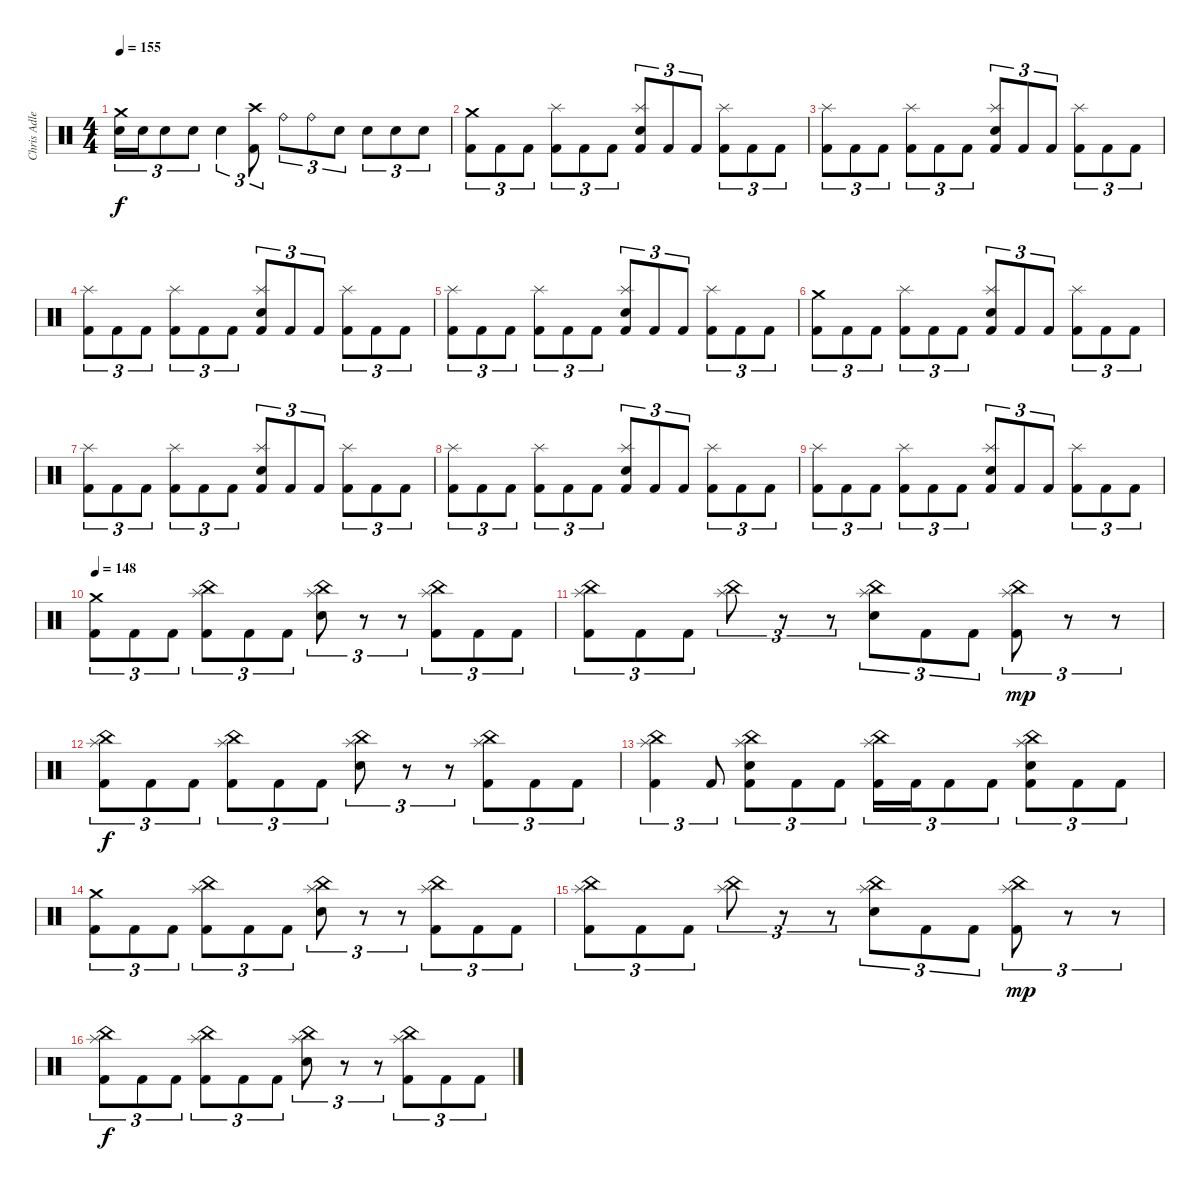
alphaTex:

\track ("Chris Adler" "Chris Adle") {instrument percussion}
\staff {score}
\articulation defaults
\ts (4 4)
\tempo 155
\clef neutral
\ks c
("Electric Snare (hit)" "Crash medium (hit)").16{tu (3 2) dy f} "Electric Snare (hit)".16{tu (3 2)} "Electric Snare (hit)".8{tu (3 2)} "Electric Snare (hit)".8{tu (3 2)} "Electric Snare (hit)".4{tu (3 2)} ("Kick (hit) 2" "Crash high (hit)").8{tu (3 2)} "Ride (bell)".8{tu (3 2)} "Ride (bell)".8{tu (3 2)} "Electric Snare (hit)".8{tu (3 2)} "Electric Snare (hit)".8{tu (3 2)} "Electric Snare (hit)".8{tu (3 2)} "Electric Snare (hit)".8{tu (3 2)} |
("Crash medium (hit)" "Kick (hit) 2").8{tu (3 2)} "Kick (hit) 2".8{tu (3 2)} "Kick (hit) 2".8{tu (3 2)} ("Splash (hit)" "Kick (hit) 2").8{tu (3 2)} "Kick (hit) 2".8{tu (3 2)} "Kick (hit) 2".8{tu (3 2)} ("Splash (hit)" "Snare (hit) 2" "Kick (hit) 2").8{tu (3 2)} "Kick (hit) 2".8{tu (3 2)} "Kick (hit) 2".8{tu (3 2)} ("Splash (hit)" "Kick (hit) 2").8{tu (3 2)} "Kick (hit) 2".8{tu (3 2)} "Kick (hit) 2".8{tu (3 2)} |
("Splash (hit)" "Kick (hit) 2").8{tu (3 2)} "Kick (hit) 2".8{tu (3 2)} "Kick (hit) 2".8{tu (3 2)} ("Splash (hit)" "Kick (hit) 2").8{tu (3 2)} "Kick (hit) 2".8{tu (3 2)} "Kick (hit) 2".8{tu (3 2)} ("Splash (hit)" "Snare (hit) 2" "Kick (hit) 2").8{tu (3 2)} "Kick (hit) 2".8{tu (3 2)} "Kick (hit) 2".8{tu (3 2)} ("Splash (hit)" "Kick (hit) 2").8{tu (3 2)} "Kick (hit) 2".8{tu (3 2)} "Kick (hit) 2".8{tu (3 2)} |
("Splash (hit)" "Kick (hit) 2").8{tu (3 2)} "Kick (hit) 2".8{tu (3 2)} "Kick (hit) 2".8{tu (3 2)} ("Splash (hit)" "Kick (hit) 2").8{tu (3 2)} "Kick (hit) 2".8{tu (3 2)} "Kick (hit) 2".8{tu (3 2)} ("Splash (hit)" "Snare (hit) 2" "Kick (hit) 2").8{tu (3 2)} "Kick (hit) 2".8{tu (3 2)} "Kick (hit) 2".8{tu (3 2)} ("Splash (hit)" "Kick (hit) 2").8{tu (3 2)} "Kick (hit) 2".8{tu (3 2)} "Kick (hit) 2".8{tu (3 2)} |
("Splash (hit)" "Kick (hit) 2").8{tu (3 2)} "Kick (hit) 2".8{tu (3 2)} "Kick (hit) 2".8{tu (3 2)} ("Splash (hit)" "Kick (hit) 2").8{tu (3 2)} "Kick (hit) 2".8{tu (3 2)} "Kick (hit) 2".8{tu (3 2)} ("Splash (hit)" "Snare (hit) 2" "Kick (hit) 2").8{tu (3 2)} "Kick (hit) 2".8{tu (3 2)} "Kick (hit) 2".8{tu (3 2)} ("Splash (hit)" "Kick (hit) 2").8{tu (3 2)} "Kick (hit) 2".8{tu (3 2)} "Kick (hit) 2".8{tu (3 2)} |
("Crash medium (hit)" "Kick (hit) 2").8{tu (3 2)} "Kick (hit) 2".8{tu (3 2)} "Kick (hit) 2".8{tu (3 2)} ("Splash (hit)" "Kick (hit) 2").8{tu (3 2)} "Kick (hit) 2".8{tu (3 2)} "Kick (hit) 2".8{tu (3 2)} ("Splash (hit)" "Snare (hit) 2" "Kick (hit) 2").8{tu (3 2)} "Kick (hit) 2".8{tu (3 2)} "Kick (hit) 2".8{tu (3 2)} ("Splash (hit)" "Kick (hit) 2").8{tu (3 2)} "Kick (hit) 2".8{tu (3 2)} "Kick (hit) 2".8{tu (3 2)} |
("Splash (hit)" "Kick (hit) 2").8{tu (3 2)} "Kick (hit) 2".8{tu (3 2)} "Kick (hit) 2".8{tu (3 2)} ("Splash (hit)" "Kick (hit) 2").8{tu (3 2)} "Kick (hit) 2".8{tu (3 2)} "Kick (hit) 2".8{tu (3 2)} ("Splash (hit)" "Snare (hit) 2" "Kick (hit) 2").8{tu (3 2)} "Kick (hit) 2".8{tu (3 2)} "Kick (hit) 2".8{tu (3 2)} ("Splash (hit)" "Kick (hit) 2").8{tu (3 2)} "Kick (hit) 2".8{tu (3 2)} "Kick (hit) 2".8{tu (3 2)} |
("Splash (hit)" "Kick (hit) 2").8{tu (3 2)} "Kick (hit) 2".8{tu (3 2)} "Kick (hit) 2".8{tu (3 2)} ("Splash (hit)" "Kick (hit) 2").8{tu (3 2)} "Kick (hit) 2".8{tu (3 2)} "Kick (hit) 2".8{tu (3 2)} ("Splash (hit)" "Snare (hit) 2" "Kick (hit) 2").8{tu (3 2)} "Kick (hit) 2".8{tu (3 2)} "Kick (hit) 2".8{tu (3 2)} ("Splash (hit)" "Kick (hit) 2").8{tu (3 2)} "Kick (hit) 2".8{tu (3 2)} "Kick (hit) 2".8{tu (3 2)} |
("Splash (hit)" "Kick (hit) 2").8{tu (3 2)} "Kick (hit) 2".8{tu (3 2)} "Kick (hit) 2".8{tu (3 2)} ("Splash (hit)" "Kick (hit) 2").8{tu (3 2)} "Kick (hit) 2".8{tu (3 2)} "Kick (hit) 2".8{tu (3 2)} ("Splash (hit)" "Snare (hit) 2" "Kick (hit) 2").8{tu (3 2)} "Kick (hit) 2".8{tu (3 2)} "Kick (hit) 2".8{tu (3 2)} ("Splash (hit)" "Kick (hit) 2").8{tu (3 2)} "Kick (hit) 2".8{tu (3 2)} "Kick (hit) 2".8{tu (3 2)} |
\tempo 148
("Crash medium (hit)" "Kick (hit) 2").8{tu (3 2)} "Kick (hit) 2".8{tu (3 2)} "Kick (hit) 2".8{tu (3 2)} ("China (hit)" "Splash (hit)" "Kick (hit) 2").8{tu (3 2)} "Kick (hit) 2".8{tu (3 2)} "Kick (hit) 2".8{tu (3 2)} ("China (hit)" "Splash (hit)" "Snare (hit) 2").8{tu (3 2)} r.8{tu (3 2)} r.8{tu (3 2)} ("China (hit)" "Splash (hit)" "Kick (hit) 2").8{tu (3 2)} "Kick (hit) 2".8{tu (3 2)} "Kick (hit) 2".8{tu (3 2)} |
("China (hit)" "Splash (hit)" "Kick (hit) 2").8{tu (3 2)} "Kick (hit) 2".8{tu (3 2)} "Kick (hit) 2".8{tu (3 2)} ("China (hit)" "Splash (hit)").8{tu (3 2)} r.8{tu (3 2)} r.8{tu (3 2)} ("China (hit)" "Splash (hit)" "Snare (hit) 2").8{tu (3 2)} "Kick (hit) 2".8{tu (3 2)} "Kick (hit) 2".8{tu (3 2)} ("China (hit)" "Splash (hit)" "Kick (hit) 2").8{tu (3 2) dy mp} r.8{tu (3 2)} r.8{tu (3 2)} |
("China (hit)" "Splash (hit)" "Kick (hit) 2").8{tu (3 2) dy f} "Kick (hit) 2".8{tu (3 2)} "Kick (hit) 2".8{tu (3 2)} ("China (hit)" "Splash (hit)" "Kick (hit) 2").8{tu (3 2)} "Kick (hit) 2".8{tu (3 2)} "Kick (hit) 2".8{tu (3 2)} ("China (hit)" "Splash (hit)" "Snare (hit) 2").8{tu (3 2)} r.8{tu (3 2)} r.8{tu (3 2)} ("China (hit)" "Splash (hit)" "Kick (hit) 2").8{tu (3 2)} "Kick (hit) 2".8{tu (3 2)} "Kick (hit) 2".8{tu (3 2)} |
("China (hit)" "Splash (hit)" "Kick (hit) 2").4{tu (3 2)} "Kick (hit) 2".8{tu (3 2)} ("China (hit)" "Splash (hit)" "Snare (hit) 2" "Kick (hit) 2").8{tu (3 2)} "Kick (hit) 2".8{tu (3 2)} "Kick (hit) 2".8{tu (3 2)} ("China (hit)" "Splash (hit)" "Kick (hit) 2").16{tu (3 2)} "Kick (hit) 2".16{tu (3 2)} "Kick (hit) 2".8{tu (3 2)} "Kick (hit) 2".8{tu (3 2)} ("China (hit)" "Splash (hit)" "Snare (hit) 2" "Kick (hit) 2").8{tu (3 2)} "Kick (hit) 2".8{tu (3 2)} "Kick (hit) 2".8{tu (3 2)} |
("Crash medium (hit)" "Kick (hit) 2").8{tu (3 2)} "Kick (hit) 2".8{tu (3 2)} "Kick (hit) 2".8{tu (3 2)} ("China (hit)" "Splash (hit)" "Kick (hit) 2").8{tu (3 2)} "Kick (hit) 2".8{tu (3 2)} "Kick (hit) 2".8{tu (3 2)} ("China (hit)" "Splash (hit)" "Snare (hit) 2").8{tu (3 2)} r.8{tu (3 2)} r.8{tu (3 2)} ("China (hit)" "Splash (hit)" "Kick (hit) 2").8{tu (3 2)} "Kick (hit) 2".8{tu (3 2)} "Kick (hit) 2".8{tu (3 2)} |
("China (hit)" "Splash (hit)" "Kick (hit) 2").8{tu (3 2)} "Kick (hit) 2".8{tu (3 2)} "Kick (hit) 2".8{tu (3 2)} ("China (hit)" "Splash (hit)").8{tu (3 2)} r.8{tu (3 2)} r.8{tu (3 2)} ("China (hit)" "Splash (hit)" "Snare (hit) 2").8{tu (3 2)} "Kick (hit) 2".8{tu (3 2)} "Kick (hit) 2".8{tu (3 2)} ("China (hit)" "Splash (hit)" "Kick (hit) 2").8{tu (3 2) dy mp} r.8{tu (3 2)} r.8{tu (3 2)} |
("China (hit)" "Splash (hit)" "Kick (hit) 2").8{tu (3 2) dy f} "Kick (hit) 2".8{tu (3 2)} "Kick (hit) 2".8{tu (3 2)} ("China (hit)" "Splash (hit)" "Kick (hit) 2").8{tu (3 2)} "Kick (hit) 2".8{tu (3 2)} "Kick (hit) 2".8{tu (3 2)} ("China (hit)" "Splash (hit)" "Snare (hit) 2").8{tu (3 2)} r.8{tu (3 2)} r.8{tu (3 2)} ("China (hit)" "Splash (hit)" "Kick (hit) 2").8{tu (3 2)} "Kick (hit) 2".8{tu (3 2)} "Kick (hit) 2".8{tu (3 2)}
